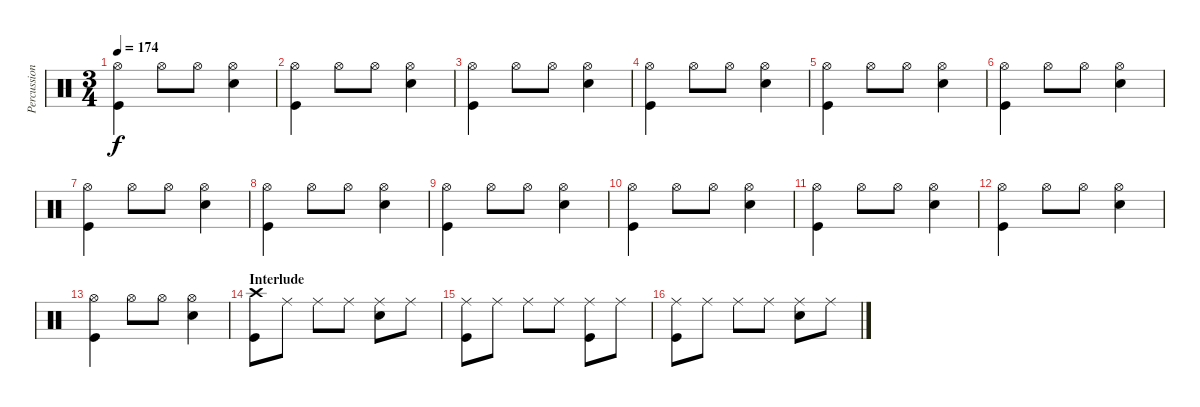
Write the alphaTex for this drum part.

\track ("Percussion" "Percussion") {instrument percussion}
\staff {score}
\articulation defaults
\ts (3 4)
\tempo 174
\clef neutral
\ks c
("Hi-Hat (open)" "Kick (hit)").4{dy f} "Hi-Hat (open)".8 "Hi-Hat (open)".8 ("Hi-Hat (open)" "Electric Snare (hit)").4 |
("Hi-Hat (open)" "Kick (hit)").4 "Hi-Hat (open)".8 "Hi-Hat (open)".8 ("Hi-Hat (open)" "Electric Snare (hit)").4 |
("Hi-Hat (open)" "Kick (hit)").4 "Hi-Hat (open)".8 "Hi-Hat (open)".8 ("Hi-Hat (open)" "Electric Snare (hit)").4 |
("Hi-Hat (open)" "Kick (hit)").4 "Hi-Hat (open)".8 "Hi-Hat (open)".8 ("Hi-Hat (open)" "Electric Snare (hit)").4 |
("Hi-Hat (open)" "Kick (hit)").4 "Hi-Hat (open)".8 "Hi-Hat (open)".8 ("Hi-Hat (open)" "Electric Snare (hit)").4 |
("Hi-Hat (open)" "Kick (hit)").4 "Hi-Hat (open)".8 "Hi-Hat (open)".8 ("Hi-Hat (open)" "Electric Snare (hit)").4 |
("Hi-Hat (open)" "Kick (hit)").4 "Hi-Hat (open)".8 "Hi-Hat (open)".8 ("Hi-Hat (open)" "Electric Snare (hit)").4 |
("Hi-Hat (open)" "Kick (hit)").4 "Hi-Hat (open)".8 "Hi-Hat (open)".8 ("Hi-Hat (open)" "Electric Snare (hit)").4 |
("Hi-Hat (open)" "Kick (hit)").4 "Hi-Hat (open)".8 "Hi-Hat (open)".8 ("Hi-Hat (open)" "Electric Snare (hit)").4 |
("Hi-Hat (open)" "Kick (hit)").4 "Hi-Hat (open)".8 "Hi-Hat (open)".8 ("Hi-Hat (open)" "Electric Snare (hit)").4 |
("Hi-Hat (open)" "Kick (hit)").4 "Hi-Hat (open)".8 "Hi-Hat (open)".8 ("Hi-Hat (open)" "Electric Snare (hit)").4 |
("Hi-Hat (open)" "Kick (hit)").4 "Hi-Hat (open)".8 "Hi-Hat (open)".8 ("Hi-Hat (open)" "Electric Snare (hit)").4 |
("Hi-Hat (open)" "Kick (hit)").4 "Hi-Hat (open)".8 "Hi-Hat (open)".8 ("Hi-Hat (open)" "Electric Snare (hit)").4 |
\section ("" "Interlude")
("Crash high (hit)" "Kick (hit)").8 "Ride (middle)".8 "Ride (middle)".8 "Ride (middle)".8 ("Ride (middle)" "Electric Snare (hit)").8 "Ride (middle)".8 |
("Ride (middle)" "Kick (hit)").8 "Ride (middle)".8 "Ride (middle)".8 "Ride (middle)".8 ("Ride (middle)" "Kick (hit)").8 "Ride (middle)".8 |
("Ride (middle)" "Kick (hit)").8 "Ride (middle)".8 "Ride (middle)".8 "Ride (middle)".8 ("Ride (middle)" "Electric Snare (hit)").8 "Ride (middle)".8
